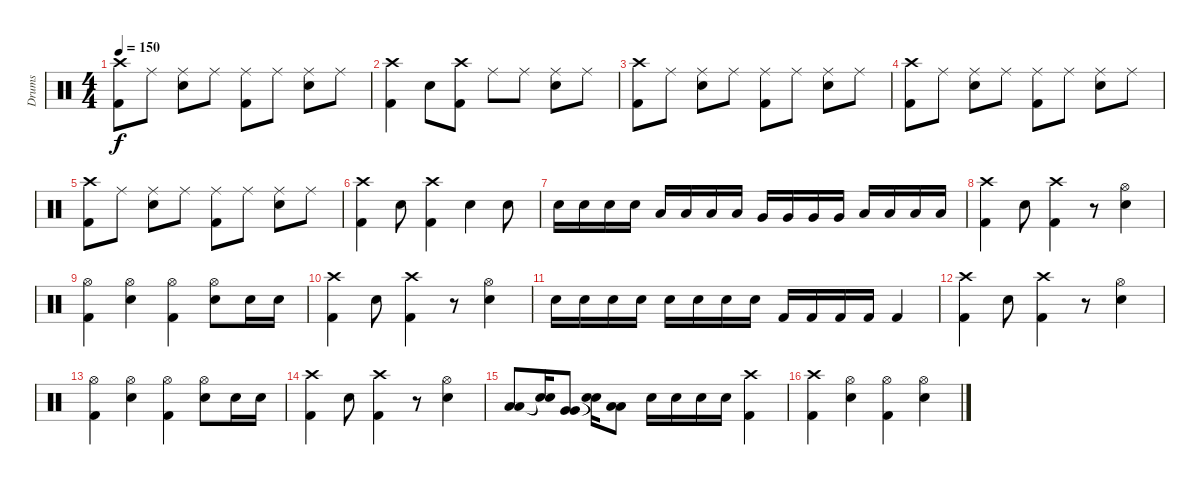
\track ("Drums" "Drums") {instrument percussion}
\staff {score}
\articulation defaults
\ts (4 4)
\tempo 150
\clef neutral
\ks c
("Crash high (hit)" "Kick (hit) 2").8{dy f} "Ride (middle)".8 ("Ride (middle)" "Snare (hit) 2").8 "Ride (middle)".8 ("Ride (middle)" "Kick (hit) 2").8 "Ride (middle)".8 ("Ride (middle)" "Snare (hit) 2").8 "Ride (middle)".8 |
("Crash high (hit)" "Kick (hit) 2").4 "Snare (hit) 2".8 ("Crash high (hit)" "Kick (hit) 2").8 "Ride (middle)".8 "Ride (middle)".8 ("Ride (middle)" "Snare (hit) 2").8 "Ride (middle)".8 |
("Crash high (hit)" "Kick (hit) 2").8 "Ride (middle)".8 ("Ride (middle)" "Snare (hit) 2").8 "Ride (middle)".8 ("Ride (middle)" "Kick (hit) 2").8 "Ride (middle)".8 ("Ride (middle)" "Snare (hit) 2").8 "Ride (middle)".8 |
("Crash high (hit)" "Kick (hit) 2").8 "Ride (middle)".8 ("Ride (middle)" "Snare (hit) 2").8 "Ride (middle)".8 ("Ride (middle)" "Kick (hit) 2").8 "Ride (middle)".8 ("Ride (middle)" "Snare (hit) 2").8 "Ride (middle)".8 |
("Crash high (hit)" "Kick (hit) 2").8 "Ride (middle)".8 ("Ride (middle)" "Snare (hit) 2").8 "Ride (middle)".8 ("Ride (middle)" "Kick (hit) 2").8 "Ride (middle)".8 ("Ride (middle)" "Snare (hit) 2").8 "Ride (middle)".8 |
("Crash high (hit)" "Kick (hit) 2").4 "Snare (hit) 2".8 ("Crash high (hit)" "Kick (hit) 2").4 "Snare (hit) 2".4 "Snare (hit) 2".8 |
"Snare (hit) 2".16 "Snare (hit) 2".16 "Snare (hit) 2".16 "Snare (hit) 2".16 "Low Tom (hit)".16 "Low Tom (hit)".16 "Low Tom (hit)".16 "Low Tom (hit)".16 "Very Low Tom (hit)".16 "Very Low Tom (hit)".16 "Very Low Tom (hit)".16 "Very Low Tom (hit)".16 "Low Floor Tom (hit)".16 "Low Floor Tom (hit)".16 "Low Floor Tom (hit)".16 "Low Floor Tom (hit)".16 |
("Crash high (hit)" "Kick (hit) 2").4 "Snare (hit) 2".8 ("Crash high (hit)" "Kick (hit) 2").4 r.8 ("Hi-Hat (open)" "Snare (hit) 2").4 |
("Hi-Hat (open)" "Kick (hit) 2").4 ("Hi-Hat (open)" "Snare (hit) 2").4 ("Hi-Hat (open)" "Kick (hit) 2").4 ("Hi-Hat (open)" "Snare (hit) 2").8 "Snare (hit) 2".16 "Snare (hit) 2".16 |
("Crash high (hit)" "Kick (hit) 2").4 "Snare (hit) 2".8 ("Crash high (hit)" "Kick (hit) 2").4 r.8 ("Hi-Hat (open)" "Snare (hit) 2").4 |
"Snare (hit) 2".16 "Snare (hit) 2".16 "Snare (hit) 2".16 "Snare (hit) 2".16 "Snare (hit) 2".16 "Snare (hit) 2".16 "Snare (hit) 2".16 "Snare (hit) 2".16 "Kick (hit) 2".16 "Kick (hit) 2".16 "Kick (hit) 2".16 "Kick (hit) 2".16 "Kick (hit) 2".4 |
("Crash high (hit)" "Kick (hit) 2").4 "Snare (hit) 2".8 ("Crash high (hit)" "Kick (hit) 2").4 r.8 ("Hi-Hat (open)" "Snare (hit) 2").4 |
("Hi-Hat (open)" "Kick (hit) 2").4 ("Hi-Hat (open)" "Snare (hit) 2").4 ("Hi-Hat (open)" "Kick (hit) 2").4 ("Hi-Hat (open)" "Snare (hit) 2").8 "Snare (hit) 2".16 "Snare (hit) 2".16 |
("Crash high (hit)" "Kick (hit) 2").4 "Snare (hit) 2".8 ("Crash high (hit)" "Kick (hit) 2").4 r.8 ("Hi-Hat (open)" "Snare (hit) 2").4 |
("Low Tom (hit)" "Low Tom (hit)").8 ("Snare (hit)"{t} "Snare (hit)"{t}).16 ("Very Low Tom (hit)" "Very Low Tom (hit)").8 ("Snare (hit)"{t} "Snare (hit)"{t}).16 ("Low Floor Tom (hit)" "Low Floor Tom (hit)").8 "Snare (hit) 2".16 "Snare (hit) 2".16 "Snare (hit) 2".16 "Snare (hit) 2".16 ("Crash high (hit)" "Kick (hit) 2").4 |
("Crash high (hit)" "Kick (hit) 2").4 ("Hi-Hat (open)" "Snare (hit) 2").4 ("Hi-Hat (open)" "Kick (hit) 2").4 ("Hi-Hat (open)" "Snare (hit) 2").4
